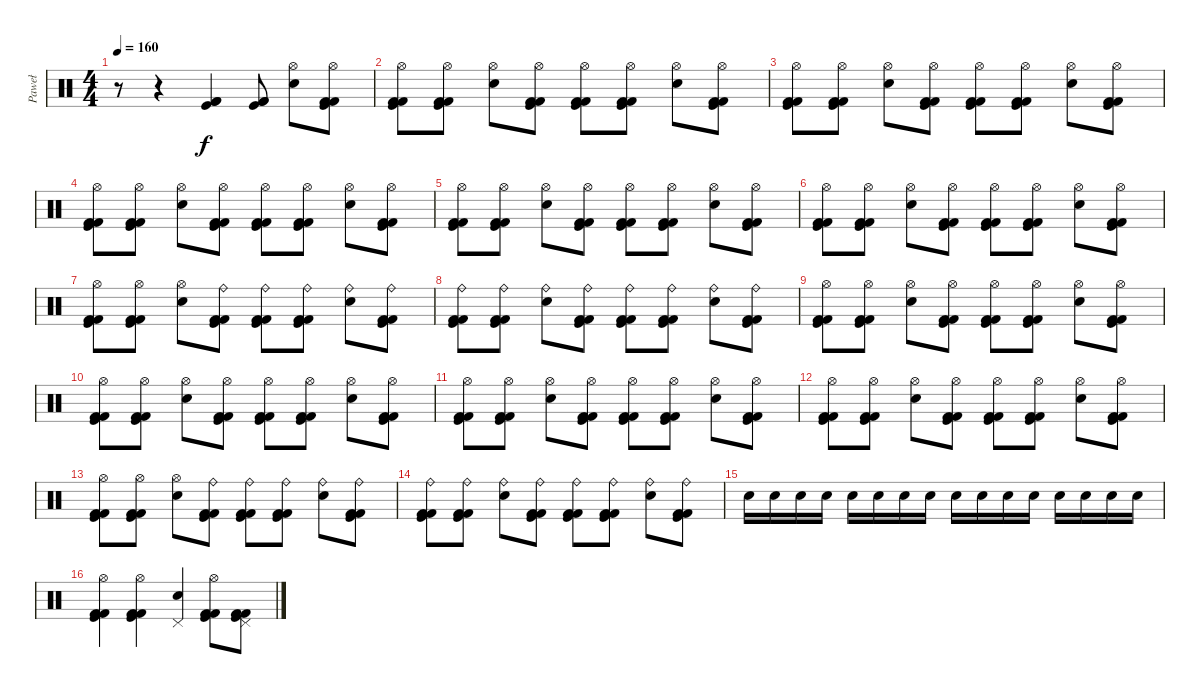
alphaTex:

\track ("Paweł" "Paweł") {instrument percussion}
\staff {score}
\articulation defaults
\ts (4 4)
\tempo 160
\clef neutral
\ks c
r.8{dy f} r.4 ("Kick (hit)" "Kick (hit) 2" "Kick (hit) 2").4 ("Kick (hit)" "Kick (hit) 2" "Kick (hit) 2").8 ("Hi-Hat (open)" "Snare (hit) 2").8 ("Hi-Hat (open)" "Kick (hit)" "Kick (hit) 2" "Kick (hit) 2").8 |
("Hi-Hat (open)" "Kick (hit)" "Kick (hit) 2" "Kick (hit) 2").8 ("Hi-Hat (open)" "Kick (hit)" "Kick (hit) 2" "Kick (hit) 2").8 ("Hi-Hat (open)" "Snare (hit) 2").8 ("Hi-Hat (open)" "Kick (hit)" "Kick (hit) 2" "Kick (hit) 2").8 ("Hi-Hat (open)" "Kick (hit)" "Kick (hit) 2" "Kick (hit) 2").8 ("Hi-Hat (open)" "Kick (hit)" "Kick (hit) 2" "Kick (hit) 2").8 ("Hi-Hat (open)" "Snare (hit) 2").8 ("Hi-Hat (open)" "Kick (hit)" "Kick (hit) 2" "Kick (hit) 2").8 |
("Hi-Hat (open)" "Kick (hit)" "Kick (hit) 2" "Kick (hit) 2").8 ("Hi-Hat (open)" "Kick (hit)" "Kick (hit) 2" "Kick (hit) 2").8 ("Hi-Hat (open)" "Snare (hit) 2").8 ("Hi-Hat (open)" "Kick (hit)" "Kick (hit) 2" "Kick (hit) 2").8 ("Hi-Hat (open)" "Kick (hit)" "Kick (hit) 2" "Kick (hit) 2").8 ("Hi-Hat (open)" "Kick (hit)" "Kick (hit) 2" "Kick (hit) 2").8 ("Hi-Hat (open)" "Snare (hit) 2").8 ("Hi-Hat (open)" "Kick (hit)" "Kick (hit) 2" "Kick (hit) 2").8 |
("Hi-Hat (open)" "Kick (hit)" "Kick (hit) 2" "Kick (hit) 2").8 ("Hi-Hat (open)" "Kick (hit)" "Kick (hit) 2" "Kick (hit) 2").8 ("Hi-Hat (open)" "Snare (hit) 2").8 ("Hi-Hat (open)" "Kick (hit)" "Kick (hit) 2" "Kick (hit) 2").8 ("Hi-Hat (open)" "Kick (hit)" "Kick (hit) 2" "Kick (hit) 2").8 ("Hi-Hat (open)" "Kick (hit)" "Kick (hit) 2" "Kick (hit) 2").8 ("Hi-Hat (open)" "Snare (hit) 2").8 ("Hi-Hat (open)" "Kick (hit)" "Kick (hit) 2" "Kick (hit) 2").8 |
("Hi-Hat (open)" "Kick (hit)" "Kick (hit) 2" "Kick (hit) 2").8 ("Hi-Hat (open)" "Kick (hit)" "Kick (hit) 2" "Kick (hit) 2").8 ("Hi-Hat (open)" "Snare (hit) 2").8 ("Hi-Hat (open)" "Kick (hit)" "Kick (hit) 2" "Kick (hit) 2").8 ("Hi-Hat (open)" "Kick (hit)" "Kick (hit) 2" "Kick (hit) 2").8 ("Hi-Hat (open)" "Kick (hit)" "Kick (hit) 2" "Kick (hit) 2").8 ("Hi-Hat (open)" "Snare (hit) 2").8 ("Hi-Hat (open)" "Kick (hit)" "Kick (hit) 2" "Kick (hit) 2").8 |
("Hi-Hat (open)" "Kick (hit)" "Kick (hit) 2" "Kick (hit) 2").8 ("Hi-Hat (open)" "Kick (hit)" "Kick (hit) 2" "Kick (hit) 2").8 ("Hi-Hat (open)" "Snare (hit) 2").8 ("Hi-Hat (open)" "Kick (hit)" "Kick (hit) 2" "Kick (hit) 2").8 ("Hi-Hat (open)" "Kick (hit)" "Kick (hit) 2" "Kick (hit) 2").8 ("Hi-Hat (open)" "Kick (hit)" "Kick (hit) 2" "Kick (hit) 2").8 ("Hi-Hat (open)" "Snare (hit) 2").8 ("Hi-Hat (open)" "Kick (hit)" "Kick (hit) 2" "Kick (hit) 2").8 |
("Hi-Hat (open)" "Kick (hit)" "Kick (hit) 2" "Kick (hit) 2").8 ("Hi-Hat (open)" "Kick (hit)" "Kick (hit) 2" "Kick (hit) 2").8 ("Hi-Hat (open)" "Snare (hit) 2").8 ("Ride (bell)" "Kick (hit)" "Kick (hit) 2" "Kick (hit) 2").8 ("Ride (bell)" "Kick (hit)" "Kick (hit) 2" "Kick (hit) 2").8 ("Ride (bell)" "Kick (hit)" "Kick (hit) 2" "Kick (hit) 2").8 ("Ride (bell)" "Snare (hit) 2").8 ("Ride (bell)" "Kick (hit)" "Kick (hit) 2" "Kick (hit) 2").8 |
("Ride (bell)" "Kick (hit)" "Kick (hit) 2" "Kick (hit) 2").8 ("Ride (bell)" "Kick (hit)" "Kick (hit) 2" "Kick (hit) 2").8 ("Ride (bell)" "Snare (hit) 2").8 ("Ride (bell)" "Kick (hit)" "Kick (hit) 2" "Kick (hit) 2").8 ("Ride (bell)" "Kick (hit)" "Kick (hit) 2" "Kick (hit) 2").8 ("Ride (bell)" "Kick (hit)" "Kick (hit) 2" "Kick (hit) 2").8 ("Ride (bell)" "Snare (hit) 2").8 ("Ride (bell)" "Kick (hit)" "Kick (hit) 2" "Kick (hit) 2").8 |
("Hi-Hat (open)" "Kick (hit)" "Kick (hit) 2" "Kick (hit) 2").8 ("Hi-Hat (open)" "Kick (hit)" "Kick (hit) 2" "Kick (hit) 2").8 ("Hi-Hat (open)" "Snare (hit) 2").8 ("Hi-Hat (open)" "Kick (hit)" "Kick (hit) 2" "Kick (hit) 2").8 ("Hi-Hat (open)" "Kick (hit)" "Kick (hit) 2" "Kick (hit) 2").8 ("Hi-Hat (open)" "Kick (hit)" "Kick (hit) 2" "Kick (hit) 2").8 ("Hi-Hat (open)" "Snare (hit) 2").8 ("Hi-Hat (open)" "Kick (hit)" "Kick (hit) 2" "Kick (hit) 2").8 |
("Hi-Hat (open)" "Kick (hit)" "Kick (hit) 2" "Kick (hit) 2").8 ("Hi-Hat (open)" "Kick (hit)" "Kick (hit) 2" "Kick (hit) 2").8 ("Hi-Hat (open)" "Snare (hit) 2").8 ("Hi-Hat (open)" "Kick (hit)" "Kick (hit) 2" "Kick (hit) 2").8 ("Hi-Hat (open)" "Kick (hit)" "Kick (hit) 2" "Kick (hit) 2").8 ("Hi-Hat (open)" "Kick (hit)" "Kick (hit) 2" "Kick (hit) 2").8 ("Hi-Hat (open)" "Snare (hit) 2").8 ("Hi-Hat (open)" "Kick (hit)" "Kick (hit) 2" "Kick (hit) 2").8 |
("Hi-Hat (open)" "Kick (hit)" "Kick (hit) 2" "Kick (hit) 2").8 ("Hi-Hat (open)" "Kick (hit)" "Kick (hit) 2" "Kick (hit) 2").8 ("Hi-Hat (open)" "Snare (hit) 2").8 ("Hi-Hat (open)" "Kick (hit)" "Kick (hit) 2" "Kick (hit) 2").8 ("Hi-Hat (open)" "Kick (hit)" "Kick (hit) 2" "Kick (hit) 2").8 ("Hi-Hat (open)" "Kick (hit)" "Kick (hit) 2" "Kick (hit) 2").8 ("Hi-Hat (open)" "Snare (hit) 2").8 ("Hi-Hat (open)" "Kick (hit)" "Kick (hit) 2" "Kick (hit) 2").8 |
("Hi-Hat (open)" "Kick (hit)" "Kick (hit) 2" "Kick (hit) 2").8 ("Hi-Hat (open)" "Kick (hit)" "Kick (hit) 2" "Kick (hit) 2").8 ("Hi-Hat (open)" "Snare (hit) 2").8 ("Hi-Hat (open)" "Kick (hit)" "Kick (hit) 2" "Kick (hit) 2").8 ("Hi-Hat (open)" "Kick (hit)" "Kick (hit) 2" "Kick (hit) 2").8 ("Hi-Hat (open)" "Kick (hit)" "Kick (hit) 2" "Kick (hit) 2").8 ("Hi-Hat (open)" "Snare (hit) 2").8 ("Hi-Hat (open)" "Kick (hit)" "Kick (hit) 2" "Kick (hit) 2").8 |
("Hi-Hat (open)" "Kick (hit)" "Kick (hit) 2" "Kick (hit) 2").8 ("Hi-Hat (open)" "Kick (hit)" "Kick (hit) 2" "Kick (hit) 2").8 ("Hi-Hat (open)" "Snare (hit) 2").8 ("Ride (bell)" "Kick (hit)" "Kick (hit) 2" "Kick (hit) 2").8 ("Ride (bell)" "Kick (hit)" "Kick (hit) 2" "Kick (hit) 2").8 ("Ride (bell)" "Kick (hit)" "Kick (hit) 2" "Kick (hit) 2").8 ("Ride (bell)" "Snare (hit) 2").8 ("Ride (bell)" "Kick (hit)" "Kick (hit) 2" "Kick (hit) 2").8 |
("Ride (bell)" "Kick (hit)" "Kick (hit) 2" "Kick (hit) 2").8 ("Ride (bell)" "Kick (hit)" "Kick (hit) 2" "Kick (hit) 2").8 ("Ride (bell)" "Snare (hit) 2").8 ("Ride (bell)" "Kick (hit)" "Kick (hit) 2" "Kick (hit) 2").8 ("Ride (bell)" "Kick (hit)" "Kick (hit) 2" "Kick (hit) 2").8 ("Ride (bell)" "Kick (hit)" "Kick (hit) 2" "Kick (hit) 2").8 ("Ride (bell)" "Snare (hit) 2").8 ("Ride (bell)" "Kick (hit)" "Kick (hit) 2" "Kick (hit) 2").8 |
"Snare (hit) 2".16 "Snare (hit) 2".16 "Snare (hit) 2".16 "Snare (hit) 2".16 "Snare (hit) 2".16 "Snare (hit) 2".16 "Snare (hit) 2".16 "Snare (hit) 2".16 "Snare (hit) 2".16 "Snare (hit) 2".16 "Snare (hit) 2".16 "Snare (hit) 2".16 "Snare (hit) 2".16 "Snare (hit) 2".16 "Snare (hit) 2".16 "Snare (hit) 2".16 |
("Hi-Hat (open)" "Kick (hit) 2" "Kick (hit)" "Kick (hit) 2").4 ("Hi-Hat (open)" "Kick (hit) 2" "Kick (hit)" "Kick (hit) 2").4 ("Pedal Hi-Hat (hit)" "Snare (hit) 2").4 ("Hi-Hat (open)" "Kick (hit) 2" "Kick (hit)" "Kick (hit) 2").8 ("Pedal Hi-Hat (hit)" "Kick (hit) 2" "Kick (hit)" "Kick (hit) 2").8
